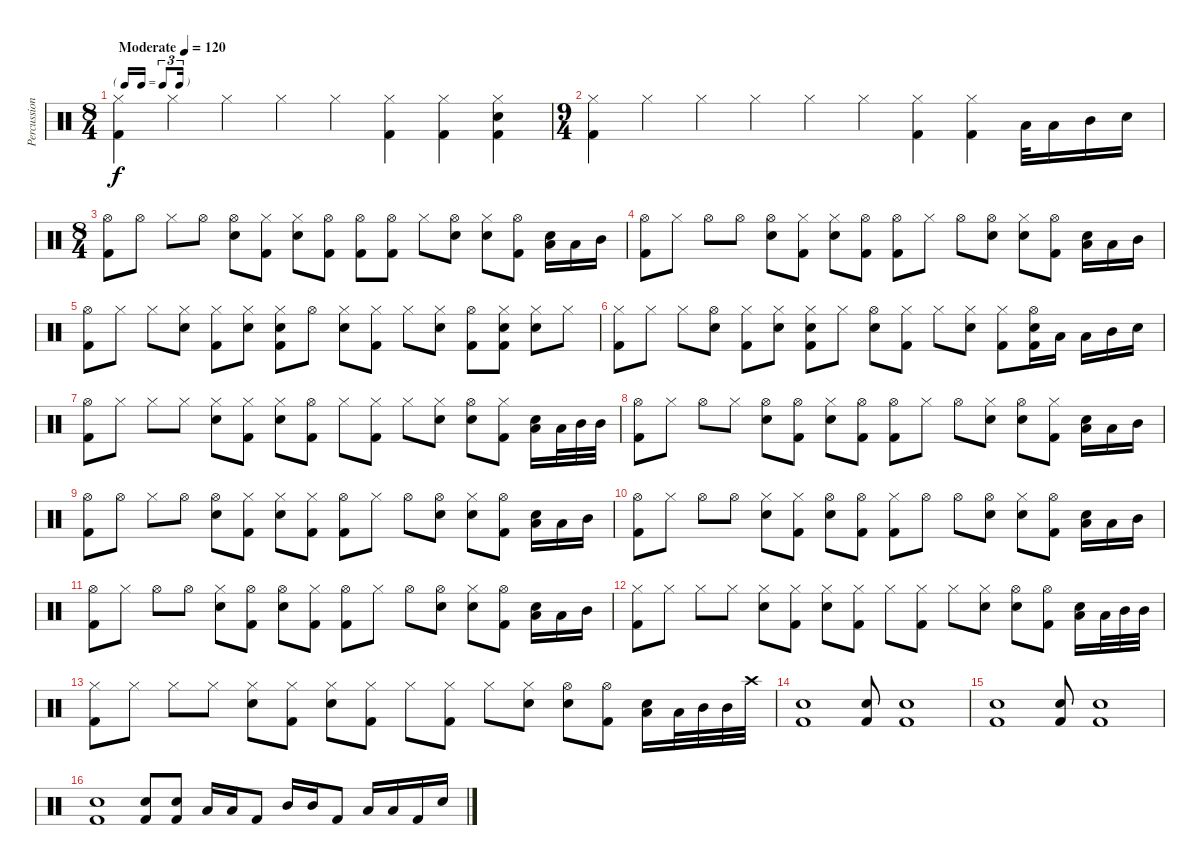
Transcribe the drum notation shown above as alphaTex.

\track ("Percussion" "Percussion") {instrument percussion}
\staff {score}
\articulation defaults
\ts (8 4)
\tf triplet16th
\tempo (120 "Moderate")
\clef neutral
\ks c
("Hi-Hat (closed)" "Kick (hit) 2").4{dy f} "Hi-Hat (closed)".4 "Hi-Hat (closed)".4 "Hi-Hat (closed)".4 "Hi-Hat (closed)".4 ("Hi-Hat (closed)" "Kick (hit) 2").4 ("Hi-Hat (closed)" "Kick (hit) 2").4 ("Hi-Hat (closed)" "Snare (hit) 2" "Kick (hit) 2").4 |
\ts (9 4)
("Hi-Hat (closed)" "Kick (hit) 2").4 "Hi-Hat (closed)".4 "Hi-Hat (closed)".4 "Hi-Hat (closed)".4 "Hi-Hat (closed)".4 "Hi-Hat (closed)".4 ("Hi-Hat (closed)" "Kick (hit) 2").4 ("Hi-Hat (closed)" "Kick (hit) 2").4 "Low Tom (hit)".32 "Low Tom (hit)".16 "Mid Tom (hit)".16 "Snare (hit) 2".16 |
\ts (8 4)
("Hi-Hat (open)" "Kick (hit) 2").8 "Hi-Hat (open)".8 "Hi-Hat (closed)".8 "Hi-Hat (open)".8 ("Hi-Hat (open)" "Snare (hit) 2").8 ("Hi-Hat (closed)" "Kick (hit) 2").8 ("Hi-Hat (closed)" "Snare (hit) 2").8 ("Hi-Hat (open)" "Kick (hit) 2").8 ("Hi-Hat (open)" "Kick (hit) 2").8 ("Hi-Hat (open)" "Kick (hit) 2").8 "Hi-Hat (closed)".8 ("Hi-Hat (open)" "Snare (hit) 2").8 ("Hi-Hat (closed)" "Snare (hit) 2").8 ("Hi-Hat (open)" "Kick (hit) 2").8 ("Low Tom (hit)" "Snare (hit) 2").16 "Low Tom (hit)".16 "Mid Tom (hit)".16 |
("Hi-Hat (open)" "Kick (hit) 2").8 "Hi-Hat (closed)".8 "Hi-Hat (open)".8 "Hi-Hat (open)".8 ("Hi-Hat (open)" "Snare (hit) 2").8 ("Hi-Hat (closed)" "Kick (hit) 2").8 ("Hi-Hat (closed)" "Snare (hit) 2").8 ("Hi-Hat (open)" "Kick (hit) 2").8 ("Hi-Hat (open)" "Kick (hit) 2").8 "Hi-Hat (closed)".8 "Hi-Hat (open)".8 ("Hi-Hat (open)" "Snare (hit) 2").8 ("Hi-Hat (closed)" "Snare (hit) 2").8 ("Hi-Hat (open)" "Kick (hit) 2").8 ("Low Tom (hit)" "Snare (hit) 2").16 "Low Tom (hit)".16 "Mid Tom (hit)".16 |
("Hi-Hat (open)" "Kick (hit) 2").8 "Hi-Hat (closed)".8 "Hi-Hat (closed)".8 ("Hi-Hat (closed)" "Snare (hit) 2").8 ("Hi-Hat (closed)" "Kick (hit) 2").8 ("Hi-Hat (closed)" "Snare (hit) 2").8 ("Hi-Hat (closed)" "Snare (hit) 2" "Kick (hit) 2").8 "Hi-Hat (open)".8 ("Hi-Hat (closed)" "Snare (hit) 2").8 ("Hi-Hat (closed)" "Kick (hit) 2").8 "Hi-Hat (closed)".8 ("Hi-Hat (closed)" "Snare (hit) 2").8 ("Hi-Hat (open)" "Kick (hit) 2").8 ("Hi-Hat (closed)" "Snare (hit) 2" "Kick (hit) 2").8 ("Hi-Hat (closed)" "Snare (hit) 2").8 "Hi-Hat (closed)".8 |
("Hi-Hat (closed)" "Kick (hit) 2").8 "Hi-Hat (closed)".8 "Hi-Hat (closed)".8 ("Hi-Hat (open)" "Snare (hit) 2").8 ("Hi-Hat (closed)" "Kick (hit) 2").8 ("Hi-Hat (closed)" "Snare (hit) 2").8 ("Hi-Hat (closed)" "Snare (hit) 2" "Kick (hit) 2").8 "Hi-Hat (closed)".8 ("Hi-Hat (open)" "Snare (hit) 2").8 ("Hi-Hat (closed)" "Kick (hit) 2").8 "Hi-Hat (closed)".8 ("Hi-Hat (closed)" "Snare (hit) 2").8 ("Hi-Hat (closed)" "Kick (hit) 2").8 ("Hi-Hat (open)" "Snare (hit) 2" "Kick (hit) 2").16 "Low Tom (hit)".16 "Low Tom (hit)".16 "Mid Tom (hit)".16 "Snare (hit) 2".16 |
("Hi-Hat (open)" "Kick (hit) 2").8 "Hi-Hat (closed)".8 "Hi-Hat (closed)".8 "Hi-Hat (closed)".8 ("Hi-Hat (closed)" "Snare (hit) 2").8 ("Hi-Hat (closed)" "Kick (hit) 2").8 ("Hi-Hat (closed)" "Snare (hit) 2").8 ("Hi-Hat (open)" "Kick (hit) 2").8 "Hi-Hat (closed)".8 ("Hi-Hat (closed)" "Kick (hit) 2").8 "Hi-Hat (closed)".8 ("Hi-Hat (closed)" "Snare (hit) 2").8 ("Hi-Hat (open)" "Snare (hit) 2").8 ("Hi-Hat (closed)" "Kick (hit) 2").8 ("Low Tom (hit)" "Snare (hit) 2").16 "Low Tom (hit)".32 "Mid Tom (hit)".32 "Mid Tom (hit)".32 |
("Hi-Hat (open)" "Kick (hit) 2").8 "Hi-Hat (closed)".8 "Hi-Hat (open)".8 "Hi-Hat (closed)".8 ("Hi-Hat (open)" "Snare (hit) 2").8 ("Hi-Hat (open)" "Kick (hit) 2").8 ("Hi-Hat (closed)" "Snare (hit) 2").8 ("Hi-Hat (open)" "Kick (hit) 2").8 ("Hi-Hat (open)" "Kick (hit) 2").8 "Hi-Hat (closed)".8 "Hi-Hat (open)".8 ("Hi-Hat (closed)" "Snare (hit) 2").8 ("Hi-Hat (open)" "Snare (hit) 2").8 ("Hi-Hat (closed)" "Kick (hit) 2").8 ("Low Tom (hit)" "Snare (hit) 2").16 "Low Tom (hit)".16 "Mid Tom (hit)".16 |
("Hi-Hat (open)" "Kick (hit) 2").8 "Hi-Hat (open)".8 "Hi-Hat (closed)".8 "Hi-Hat (open)".8 ("Hi-Hat (open)" "Snare (hit) 2").8 ("Hi-Hat (closed)" "Kick (hit) 2").8 ("Hi-Hat (closed)" "Snare (hit) 2").8 ("Hi-Hat (closed)" "Kick (hit) 2").8 ("Hi-Hat (open)" "Kick (hit) 2").8 "Hi-Hat (closed)".8 "Hi-Hat (open)".8 ("Hi-Hat (open)" "Snare (hit) 2").8 ("Hi-Hat (closed)" "Snare (hit) 2").8 ("Hi-Hat (open)" "Kick (hit) 2").8 ("Low Tom (hit)" "Snare (hit) 2").16 "Low Tom (hit)".16 "Mid Tom (hit)".16 |
("Hi-Hat (open)" "Kick (hit) 2").8 "Hi-Hat (closed)".8 "Hi-Hat (open)".8 "Hi-Hat (open)".8 ("Hi-Hat (closed)" "Snare (hit) 2").8 ("Hi-Hat (closed)" "Kick (hit) 2").8 ("Hi-Hat (open)" "Snare (hit) 2").8 ("Hi-Hat (open)" "Kick (hit) 2").8 ("Hi-Hat (closed)" "Kick (hit) 2").8 "Hi-Hat (open)".8 "Hi-Hat (open)".8 ("Hi-Hat (open)" "Snare (hit) 2").8 ("Hi-Hat (closed)" "Snare (hit) 2").8 ("Hi-Hat (open)" "Kick (hit) 2").8 ("Low Tom (hit)" "Snare (hit) 2").16 "Low Tom (hit)".16 "Mid Tom (hit)".16 |
("Hi-Hat (open)" "Kick (hit) 2").8 "Hi-Hat (closed)".8 "Hi-Hat (open)".8 "Hi-Hat (open)".8 ("Hi-Hat (closed)" "Snare (hit) 2").8 ("Hi-Hat (open)" "Kick (hit) 2").8 ("Hi-Hat (open)" "Snare (hit) 2").8 ("Hi-Hat (closed)" "Kick (hit) 2").8 ("Hi-Hat (open)" "Kick (hit) 2").8 "Hi-Hat (closed)".8 "Hi-Hat (open)".8 ("Hi-Hat (open)" "Snare (hit) 2").8 ("Hi-Hat (closed)" "Snare (hit) 2").8 ("Hi-Hat (open)" "Kick (hit) 2").8 ("Low Tom (hit)" "Snare (hit) 2").16 "Low Tom (hit)".16 "Mid Tom (hit)".16 |
("Hi-Hat (closed)" "Kick (hit) 2").8 "Hi-Hat (closed)".8 "Hi-Hat (closed)".8 "Hi-Hat (closed)".8 ("Hi-Hat (closed)" "Snare (hit) 2").8 ("Hi-Hat (closed)" "Kick (hit) 2").8 ("Hi-Hat (closed)" "Snare (hit) 2").8 ("Hi-Hat (closed)" "Kick (hit) 2").8 "Hi-Hat (closed)".8 ("Hi-Hat (closed)" "Kick (hit) 2").8 "Hi-Hat (closed)".8 ("Hi-Hat (closed)" "Snare (hit) 2").8 ("Hi-Hat (open)" "Snare (hit) 2").8 ("Hi-Hat (open)" "Kick (hit) 2").8 ("Low Tom (hit)" "Snare (hit) 2").16 "Low Tom (hit)".32 "Mid Tom (hit)".32 "Mid Tom (hit)".32 |
("Hi-Hat (closed)" "Kick (hit) 2").8 "Hi-Hat (closed)".8 "Hi-Hat (closed)".8 "Hi-Hat (closed)".8 ("Hi-Hat (closed)" "Snare (hit) 2").8 ("Hi-Hat (closed)" "Kick (hit) 2").8 ("Hi-Hat (closed)" "Snare (hit) 2").8 ("Hi-Hat (closed)" "Kick (hit) 2").8 "Hi-Hat (closed)".8 ("Hi-Hat (closed)" "Kick (hit) 2").8 "Hi-Hat (closed)".8 ("Hi-Hat (closed)" "Snare (hit) 2").8 ("Hi-Hat (open)" "Snare (hit) 2").8 ("Hi-Hat (open)" "Kick (hit) 2").8 ("Low Tom (hit)" "Snare (hit) 2").16 "Low Tom (hit)".32 "Mid Tom (hit)".32 "Mid Tom (hit)".32 "Crash high (hit)".32 |
("Snare (hit) 2" "Kick (hit) 2").1 ("Snare (hit) 2" "Kick (hit) 2").8 ("Snare (hit) 2" "Kick (hit) 2").1 |
("Snare (hit) 2" "Kick (hit) 2").1 ("Snare (hit) 2" "Kick (hit) 2").8 ("Snare (hit) 2" "Kick (hit) 2").1 |
("Snare (hit) 2" "Kick (hit) 2").1 ("Snare (hit) 2" "Kick (hit) 2").8 ("Snare (hit) 2" "Kick (hit) 2").8 "Low Tom (hit)".16 "Low Tom (hit)".16 "Kick (hit) 2".8 "Mid Tom (hit)".16 "Mid Tom (hit)".16 "Kick (hit) 2".8 "Low Floor Tom (hit)".16 "Low Floor Tom (hit)".16 "Kick (hit) 2".16 "Snare (hit) 2".16
